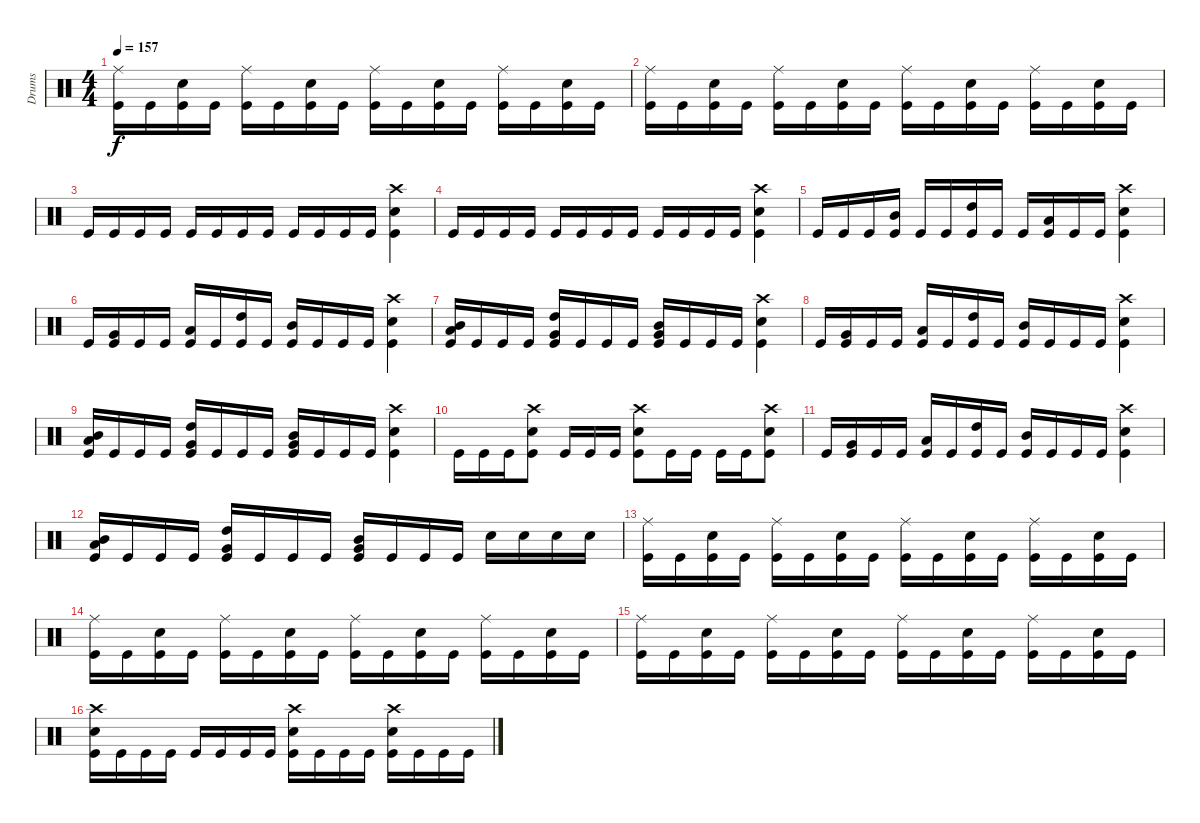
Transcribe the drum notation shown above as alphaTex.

\track ("Drums" "Drums") {instrument percussion}
\staff {score}
\articulation defaults
\ts (4 4)
\tempo 157
\clef neutral
\ks c
("Ride (middle)" "Kick (hit)").16{dy f} "Kick (hit)".16 ("Snare (hit) 2" "Kick (hit)").16 "Kick (hit)".16 ("Ride (middle)" "Kick (hit)").16 "Kick (hit)".16 ("Snare (hit) 2" "Kick (hit)").16 "Kick (hit)".16 ("Ride (middle)" "Kick (hit)").16 "Kick (hit)".16 ("Snare (hit) 2" "Kick (hit)").16 "Kick (hit)".16 ("Ride (middle)" "Kick (hit)").16 "Kick (hit)".16 ("Snare (hit) 2" "Kick (hit)").16 "Kick (hit)".16 |
("Ride (middle)" "Kick (hit)").16 "Kick (hit)".16 ("Snare (hit) 2" "Kick (hit)").16 "Kick (hit)".16 ("Ride (middle)" "Kick (hit)").16 "Kick (hit)".16 ("Snare (hit) 2" "Kick (hit)").16 "Kick (hit)".16 ("Ride (middle)" "Kick (hit)").16 "Kick (hit)".16 ("Snare (hit) 2" "Kick (hit)").16 "Kick (hit)".16 ("Ride (middle)" "Kick (hit)").16 "Kick (hit)".16 ("Snare (hit) 2" "Kick (hit)").16 "Kick (hit)".16 |
"Kick (hit)".16 "Kick (hit)".16 "Kick (hit)".16 "Kick (hit)".16 "Kick (hit)".16 "Kick (hit)".16 "Kick (hit)".16 "Kick (hit)".16 "Kick (hit)".16 "Kick (hit)".16 "Kick (hit)".16 "Kick (hit)".16 ("Snare (hit) 2" "Crash high (hit)" "Kick (hit)").4 |
"Kick (hit)".16 "Kick (hit)".16 "Kick (hit)".16 "Kick (hit)".16 "Kick (hit)".16 "Kick (hit)".16 "Kick (hit)".16 "Kick (hit)".16 "Kick (hit)".16 "Kick (hit)".16 "Kick (hit)".16 "Kick (hit)".16 ("Snare (hit) 2" "Crash high (hit)" "Kick (hit)").4 |
"Kick (hit)".16 "Kick (hit)".16 "Kick (hit)".16 ("Mid Tom (hit)" "Kick (hit)").16 "Kick (hit)".16 "Kick (hit)".16 ("High Tom (hit)" "Kick (hit)").16 "Kick (hit)".16 "Kick (hit)".16 ("Low Tom (hit)" "Kick (hit)").16 "Kick (hit)".16 "Kick (hit)".16 ("Snare (hit) 2" "Crash high (hit)" "Kick (hit)").4 |
"Kick (hit)".16 ("Very Low Tom (hit)" "Kick (hit)").16 "Kick (hit)".16 "Kick (hit)".16 ("Low Tom (hit)" "Kick (hit)").16 "Kick (hit)".16 ("High Tom (hit)" "Kick (hit)").16 "Kick (hit)".16 ("Mid Tom (hit)" "Kick (hit)").16 "Kick (hit)".16 "Kick (hit)".16 "Kick (hit)".16 ("Snare (hit) 2" "Crash high (hit)" "Kick (hit)").4 |
("Mid Tom (hit)" "Low Tom (hit)" "Kick (hit)").16 "Kick (hit)".16 "Kick (hit)".16 "Kick (hit)".16 ("High Tom (hit)" "Very Low Tom (hit)" "Kick (hit)").16 "Kick (hit)".16 "Kick (hit)".16 "Kick (hit)".16 ("Mid Tom (hit)" "Very Low Tom (hit)" "Kick (hit)").16 "Kick (hit)".16 "Kick (hit)".16 "Kick (hit)".16 ("Snare (hit) 2" "Crash high (hit)" "Kick (hit)").4 |
"Kick (hit)".16 ("Very Low Tom (hit)" "Kick (hit)").16 "Kick (hit)".16 "Kick (hit)".16 ("Low Tom (hit)" "Kick (hit)").16 "Kick (hit)".16 ("High Tom (hit)" "Kick (hit)").16 "Kick (hit)".16 ("Mid Tom (hit)" "Kick (hit)").16 "Kick (hit)".16 "Kick (hit)".16 "Kick (hit)".16 ("Snare (hit) 2" "Crash high (hit)" "Kick (hit)").4 |
("Mid Tom (hit)" "Low Tom (hit)" "Kick (hit)").16 "Kick (hit)".16 "Kick (hit)".16 "Kick (hit)".16 ("High Tom (hit)" "Very Low Tom (hit)" "Kick (hit)").16 "Kick (hit)".16 "Kick (hit)".16 "Kick (hit)".16 ("Mid Tom (hit)" "Very Low Tom (hit)" "Kick (hit)").16 "Kick (hit)".16 "Kick (hit)".16 "Kick (hit)".16 ("Snare (hit) 2" "Crash high (hit)" "Kick (hit)").4 |
"Kick (hit)".16 "Kick (hit)".16 "Kick (hit)".16 ("Snare (hit) 2" "Crash high (hit)" "Kick (hit)").8 "Kick (hit)".16 "Kick (hit)".16 "Kick (hit)".16 ("Snare (hit) 2" "Crash high (hit)" "Kick (hit)").8 "Kick (hit)".16 "Kick (hit)".16 "Kick (hit)".16 "Kick (hit)".16 ("Snare (hit) 2" "Crash high (hit)" "Kick (hit)").8 |
"Kick (hit)".16 ("Very Low Tom (hit)" "Kick (hit)").16 "Kick (hit)".16 "Kick (hit)".16 ("Low Tom (hit)" "Kick (hit)").16 "Kick (hit)".16 ("High Tom (hit)" "Kick (hit)").16 "Kick (hit)".16 ("Mid Tom (hit)" "Kick (hit)").16 "Kick (hit)".16 "Kick (hit)".16 "Kick (hit)".16 ("Snare (hit) 2" "Crash high (hit)" "Kick (hit)").4 |
("Mid Tom (hit)" "Low Tom (hit)" "Kick (hit)").16 "Kick (hit)".16 "Kick (hit)".16 "Kick (hit)".16 ("High Tom (hit)" "Very Low Tom (hit)" "Kick (hit)").16 "Kick (hit)".16 "Kick (hit)".16 "Kick (hit)".16 ("Mid Tom (hit)" "Very Low Tom (hit)" "Kick (hit)").16 "Kick (hit)".16 "Kick (hit)".16 "Kick (hit)".16 "Snare (hit) 2".16 "Snare (hit) 2".16 "Snare (hit) 2".16 "Snare (hit) 2".16 |
("Ride (middle)" "Kick (hit)").16 "Kick (hit)".16 ("Snare (hit) 2" "Kick (hit)").16 "Kick (hit)".16 ("Ride (middle)" "Kick (hit)").16 "Kick (hit)".16 ("Snare (hit) 2" "Kick (hit)").16 "Kick (hit)".16 ("Ride (middle)" "Kick (hit)").16 "Kick (hit)".16 ("Snare (hit) 2" "Kick (hit)").16 "Kick (hit)".16 ("Ride (middle)" "Kick (hit)").16 "Kick (hit)".16 ("Snare (hit) 2" "Kick (hit)").16 "Kick (hit)".16 |
("Ride (middle)" "Kick (hit)").16 "Kick (hit)".16 ("Snare (hit) 2" "Kick (hit)").16 "Kick (hit)".16 ("Ride (middle)" "Kick (hit)").16 "Kick (hit)".16 ("Snare (hit) 2" "Kick (hit)").16 "Kick (hit)".16 ("Ride (middle)" "Kick (hit)").16 "Kick (hit)".16 ("Snare (hit) 2" "Kick (hit)").16 "Kick (hit)".16 ("Ride (middle)" "Kick (hit)").16 "Kick (hit)".16 ("Snare (hit) 2" "Kick (hit)").16 "Kick (hit)".16 |
("Ride (middle)" "Kick (hit)").16 "Kick (hit)".16 ("Snare (hit) 2" "Kick (hit)").16 "Kick (hit)".16 ("Ride (middle)" "Kick (hit)").16 "Kick (hit)".16 ("Snare (hit) 2" "Kick (hit)").16 "Kick (hit)".16 ("Ride (middle)" "Kick (hit)").16 "Kick (hit)".16 ("Snare (hit) 2" "Kick (hit)").16 "Kick (hit)".16 ("Ride (middle)" "Kick (hit)").16 "Kick (hit)".16 ("Snare (hit) 2" "Kick (hit)").16 "Kick (hit)".16 |
("Snare (hit) 2" "Crash high (hit)" "Kick (hit)").16 "Kick (hit)".16 "Kick (hit)".16 "Kick (hit)".16 "Kick (hit)".16 "Kick (hit)".16 "Kick (hit)".16 "Kick (hit)".16 ("Snare (hit) 2" "Crash high (hit)" "Kick (hit)").16 "Kick (hit)".16 "Kick (hit)".16 "Kick (hit)".16 ("Snare (hit) 2" "Crash high (hit)" "Kick (hit)").16 "Kick (hit)".16 "Kick (hit)".16 "Kick (hit)".16
